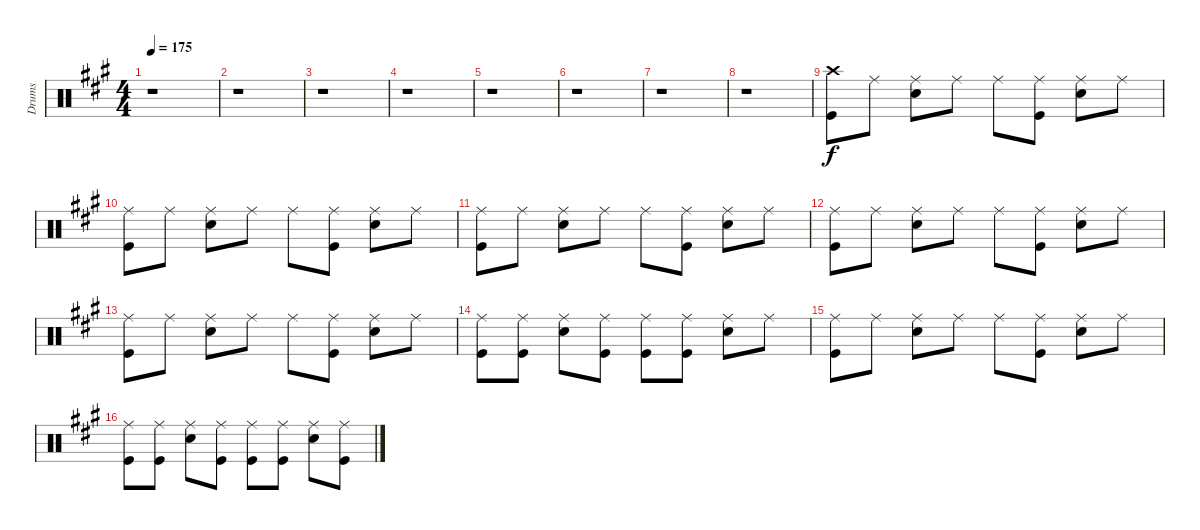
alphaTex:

\track ("Drums" "Drums") {instrument percussion}
\staff {score}
\articulation defaults
\ts (4 4)
\tempo 175
\clef neutral
\ks f#minor
r.1{dy f} |
r.1 |
r.1 |
r.1 |
r.1 |
r.1 |
r.1 |
r.1 |
("Crash high (hit)" "Kick (hit)").8 "Ride (middle)".8 ("Ride (middle)" "Snare (hit) 2").8 "Ride (middle)".8 "Ride (middle)".8 ("Ride (middle)" "Kick (hit)").8 ("Ride (middle)" "Snare (hit) 2").8 "Ride (middle)".8 |
("Ride (middle)" "Kick (hit)").8 "Ride (middle)".8 ("Ride (middle)" "Snare (hit) 2").8 "Ride (middle)".8 "Ride (middle)".8 ("Ride (middle)" "Kick (hit)").8 ("Ride (middle)" "Snare (hit) 2").8 "Ride (middle)".8 |
("Ride (middle)" "Kick (hit)").8 "Ride (middle)".8 ("Ride (middle)" "Snare (hit) 2").8 "Ride (middle)".8 "Ride (middle)".8 ("Ride (middle)" "Kick (hit)").8 ("Ride (middle)" "Snare (hit) 2").8 "Ride (middle)".8 |
("Ride (middle)" "Kick (hit)").8 "Ride (middle)".8 ("Ride (middle)" "Snare (hit) 2").8 "Ride (middle)".8 "Ride (middle)".8 ("Ride (middle)" "Kick (hit)").8 ("Ride (middle)" "Snare (hit) 2").8 "Ride (middle)".8 |
("Ride (middle)" "Kick (hit)").8 "Ride (middle)".8 ("Ride (middle)" "Snare (hit) 2").8 "Ride (middle)".8 "Ride (middle)".8 ("Ride (middle)" "Kick (hit)").8 ("Ride (middle)" "Snare (hit) 2").8 "Ride (middle)".8 |
("Ride (middle)" "Kick (hit)").8 ("Ride (middle)" "Kick (hit)").8 ("Ride (middle)" "Snare (hit) 2").8 ("Ride (middle)" "Kick (hit)").8 ("Ride (middle)" "Kick (hit)").8 ("Ride (middle)" "Kick (hit)").8 ("Ride (middle)" "Snare (hit) 2").8 "Ride (middle)".8 |
("Ride (middle)" "Kick (hit)").8 "Ride (middle)".8 ("Ride (middle)" "Snare (hit) 2").8 "Ride (middle)".8 "Ride (middle)".8 ("Ride (middle)" "Kick (hit)").8 ("Ride (middle)" "Snare (hit) 2").8 "Ride (middle)".8 |
("Ride (middle)" "Kick (hit)").8 ("Ride (middle)" "Kick (hit)").8 ("Ride (middle)" "Snare (hit) 2").8 ("Ride (middle)" "Kick (hit)").8 ("Ride (middle)" "Kick (hit)").8 ("Ride (middle)" "Kick (hit)").8 ("Ride (middle)" "Snare (hit) 2").8 ("Ride (middle)" "Kick (hit)").8
